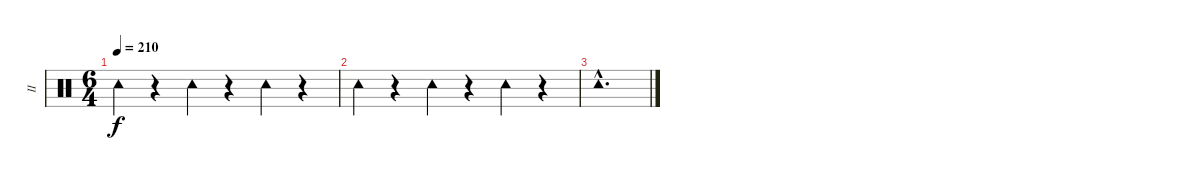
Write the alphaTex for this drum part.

\track ("II" "II") {instrument percussion}
\staff {score}
\articulation defaults
\ts (6 4)
\tempo 210
\clef neutral
\ks c "Tambourine (hit)".4{dy f}
r.4 "Tambourine (hit)".4 r.4 "Tambourine (hit)".4 r.4 |
"Tambourine (hit)".4 r.4 "Tambourine (hit)".4 r.4 "Tambourine (hit)".4 r.4 |
"Tambourine (hit)"{hac}.1{d}
